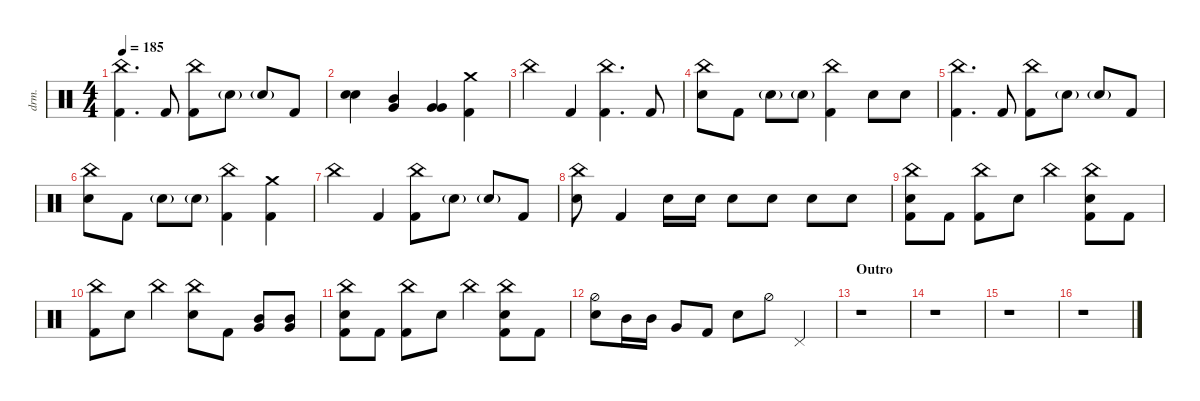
\defaultSystemsLayout 4
\hideDynamics
\bracketExtendMode nobrackets
\track ("Drums - Šimon" "drm.") {instrument percussion}
\staff {score}
\articulation defaults
\ts (4 4)
\tempo 185
\clef neutral
\ks c
("China (hit)" "Kick (hit) 2").4{d dy ff} "Kick (hit) 2".8 ("Kick (hit) 2" "China (hit)").8 "Snare (hit) 2"{g}.8{dy mp} "Snare (hit) 2"{g}.8 "Kick (hit) 2".8{dy ff} |
("Snare (hit) 2" "Snare (hit) 2").4 ("Very Low Tom (hit)" "Mid Tom (hit)").4 ("Very Low Tom (hit)" "Very Low Tom (hit)").4 ("Kick (hit) 2" "Crash medium (hit)").4 |
"China (hit)".4 "Kick (hit) 2".4 ("Kick (hit) 2" "China (hit)").4{d} "Kick (hit) 2".8 |
("Snare (hit) 2" "China (hit)").8 "Kick (hit) 2".8 "Snare (hit) 2"{g}.8{dy mp} "Snare (hit) 2"{g}.8 ("Kick (hit) 2" "China (hit)").4{dy ff} "Snare (hit) 2".8 "Snare (hit) 2".8 |
("China (hit)" "Kick (hit) 2").4{d} "Kick (hit) 2".8 ("Kick (hit) 2" "China (hit)").8 "Snare (hit) 2"{g}.8{dy mp} "Snare (hit) 2"{g}.8 "Kick (hit) 2".8{dy ff} |
("Snare (hit) 2" "China (hit)").8 "Kick (hit) 2".8 "Snare (hit) 2"{g}.8{dy mp} "Snare (hit) 2"{g}.8 ("Kick (hit) 2" "China (hit)").4{dy ff} ("Kick (hit) 2" "Crash medium (hit)").4 |
"China (hit)".4 "Kick (hit) 2".4 ("Kick (hit) 2" "China (hit)").8 "Snare (hit) 2"{g}.8{dy mp} "Snare (hit) 2"{g}.8 "Kick (hit) 2".8{dy ff} |
("Snare (hit) 2" "China (hit)").8 "Kick (hit) 2".4 "Snare (hit) 2".16 "Snare (hit) 2".16 "Snare (hit) 2".8{dy f} "Snare (hit) 2".8{dy ff} "Snare (hit) 2".8 "Snare (hit) 2".8 |
("China (hit)" "Snare (hit) 2" "Kick (hit) 2").8 "Kick (hit) 2".8 ("Kick (hit) 2" "China (hit)").8 "Snare (hit) 2".8 "China (hit)".4 ("China (hit)" "Snare (hit) 2" "Kick (hit) 2").8 "Kick (hit) 2".8 |
("Kick (hit) 2" "China (hit)").8 "Snare (hit) 2".8 "China (hit)".4 ("Snare (hit) 2" "China (hit)").8 "Kick (hit) 2".8 ("Very Low Tom (hit)" "Mid Tom (hit)").8 ("Very Low Tom (hit)" "Mid Tom (hit)").8 |
("China (hit)" "Snare (hit) 2" "Kick (hit) 2").8 "Kick (hit) 2".8 ("Kick (hit) 2" "China (hit)").8 "Snare (hit) 2".8 "China (hit)".4 ("China (hit)" "Snare (hit) 2" "Kick (hit) 2").8 "Kick (hit) 2".8 |
("Snare (hit) 2" "Hi-Hat (half)").8 "Mid Tom (hit)".16 "Mid Tom (hit)".16 "Very Low Tom (hit)".8 "Kick (hit) 2".8 "Snare (hit) 2".8 "Hi-Hat (half)".8 "Pedal Hi-Hat (hit)".4 |
\section ("" "Outro")
r.1{beam Down} |
r.1{beam Down} |
r.1{beam Down} |
r.1{beam Down}
